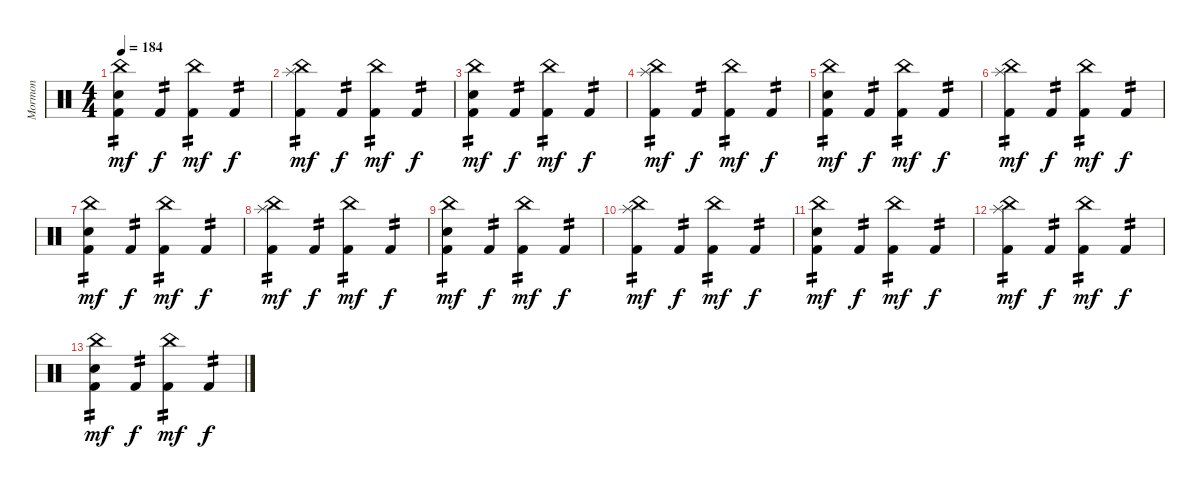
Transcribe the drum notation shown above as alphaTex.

\track ("Mormon" "Mormon") {solo instrument percussion}
\staff {score}
\articulation defaults
\ts (4 4)
\tempo 184
\clef neutral
\ks c
("China (hit)" "Snare (hit) 2" "Kick (hit) 2").4{tp 2 dy mf} "Kick (hit) 2".4{tp 2 dy f} ("China (hit)" "Kick (hit) 2").4{tp 2 dy mf} "Kick (hit) 2".4{tp 2 dy f} |
("China (hit)" "Splash (hit)" "Kick (hit) 2").4{tp 2 dy mf} "Kick (hit) 2".4{tp 2 dy f} ("China (hit)" "Kick (hit) 2").4{tp 2 dy mf} "Kick (hit) 2".4{tp 2 dy f} |
("China (hit)" "Snare (hit) 2" "Kick (hit) 2").4{tp 2 dy mf} "Kick (hit) 2".4{tp 2 dy f} ("China (hit)" "Kick (hit) 2").4{tp 2 dy mf} "Kick (hit) 2".4{tp 2 dy f} |
("China (hit)" "Splash (hit)" "Kick (hit) 2").4{tp 2 dy mf} "Kick (hit) 2".4{tp 2 dy f} ("China (hit)" "Kick (hit) 2").4{tp 2 dy mf} "Kick (hit) 2".4{tp 2 dy f} |
("China (hit)" "Snare (hit) 2" "Kick (hit) 2").4{tp 2 dy mf} "Kick (hit) 2".4{tp 2 dy f} ("China (hit)" "Kick (hit) 2").4{tp 2 dy mf} "Kick (hit) 2".4{tp 2 dy f} |
("China (hit)" "Splash (hit)" "Kick (hit) 2").4{tp 2 dy mf} "Kick (hit) 2".4{tp 2 dy f} ("China (hit)" "Kick (hit) 2").4{tp 2 dy mf} "Kick (hit) 2".4{tp 2 dy f} |
("China (hit)" "Snare (hit) 2" "Kick (hit) 2").4{tp 2 dy mf} "Kick (hit) 2".4{tp 2 dy f} ("China (hit)" "Kick (hit) 2").4{tp 2 dy mf} "Kick (hit) 2".4{tp 2 dy f} |
("China (hit)" "Splash (hit)" "Kick (hit) 2").4{tp 2 dy mf} "Kick (hit) 2".4{tp 2 dy f} ("China (hit)" "Kick (hit) 2").4{tp 2 dy mf} "Kick (hit) 2".4{tp 2 dy f} |
("China (hit)" "Snare (hit) 2" "Kick (hit) 2").4{tp 2 dy mf} "Kick (hit) 2".4{tp 2 dy f} ("China (hit)" "Kick (hit) 2").4{tp 2 dy mf} "Kick (hit) 2".4{tp 2 dy f} |
("China (hit)" "Splash (hit)" "Kick (hit) 2").4{tp 2 dy mf} "Kick (hit) 2".4{tp 2 dy f} ("China (hit)" "Kick (hit) 2").4{tp 2 dy mf} "Kick (hit) 2".4{tp 2 dy f} |
("China (hit)" "Snare (hit) 2" "Kick (hit) 2").4{tp 2 dy mf} "Kick (hit) 2".4{tp 2 dy f} ("China (hit)" "Kick (hit) 2").4{tp 2 dy mf} "Kick (hit) 2".4{tp 2 dy f} |
("China (hit)" "Splash (hit)" "Kick (hit) 2").4{tp 2 dy mf} "Kick (hit) 2".4{tp 2 dy f} ("China (hit)" "Kick (hit) 2").4{tp 2 dy mf} "Kick (hit) 2".4{tp 2 dy f} |
("China (hit)" "Snare (hit) 2" "Kick (hit) 2").4{tp 2 dy mf} "Kick (hit) 2".4{tp 2 dy f} ("China (hit)" "Kick (hit) 2").4{tp 2 dy mf} "Kick (hit) 2".4{tp 2 dy f}
